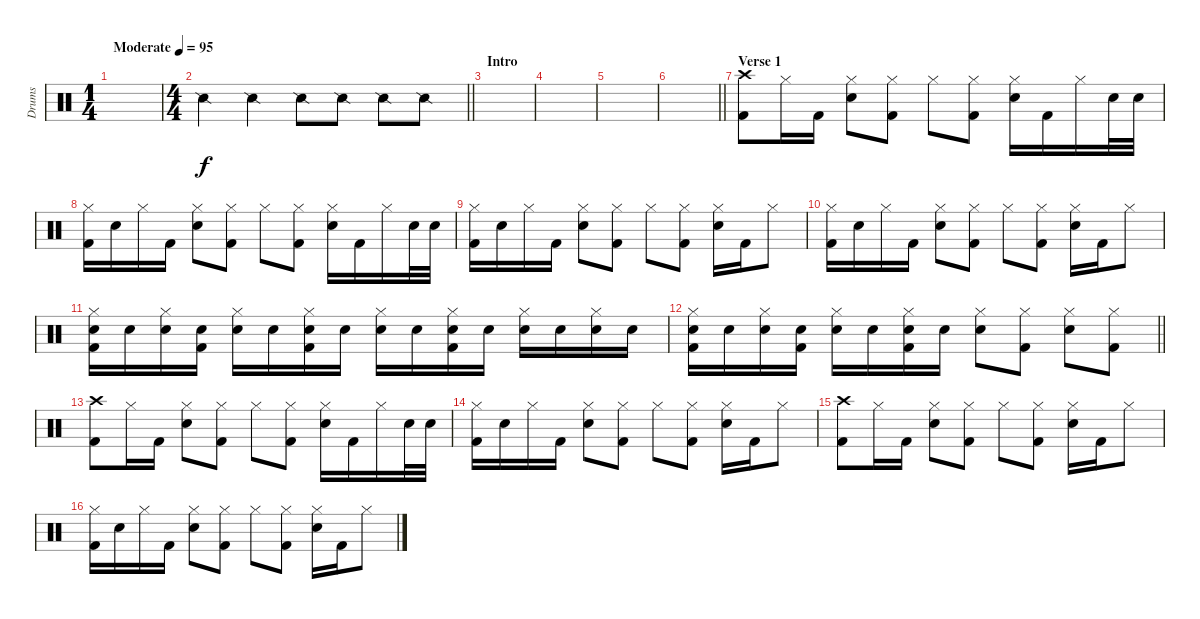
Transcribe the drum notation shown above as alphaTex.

\track ("Drums" "Drums") {instrument percussion}
\staff {score}
\articulation defaults
\ts (1 4)
\tempo (95 "Moderate")
\clef neutral
\ks c
|
\ts (4 4)
\barLineRight lightlight "Snare (side stick) 2".4 "Snare (side stick) 2".4 "Snare (side stick) 2".8 "Snare (side stick) 2".8 "Snare (side stick) 2".8 "Snare (side stick) 2".8
|
\section ("" "Intro")
|
|
|
\barLineRight lightlight
|
\section ("" "Verse 1")
("Crash high (hit)" "Kick (hit) 2").8 "Hi-Hat (closed)".16 "Kick (hit) 2".16 ("Hi-Hat (closed)" "Snare (hit) 2").8 ("Hi-Hat (closed)" "Kick (hit) 2").8 "Hi-Hat (closed)".8 ("Hi-Hat (closed)" "Kick (hit) 2").8 ("Hi-Hat (closed)" "Snare (hit) 2").16 "Kick (hit) 2".16 "Hi-Hat (closed)".16 "Snare (hit) 2".32 "Snare (hit) 2".32 |
("Hi-Hat (closed)" "Kick (hit) 2").16 "Snare (hit) 2".16 "Hi-Hat (closed)".16 "Kick (hit) 2".16 ("Hi-Hat (closed)" "Snare (hit) 2").8 ("Hi-Hat (closed)" "Kick (hit) 2").8 "Hi-Hat (closed)".8 ("Hi-Hat (closed)" "Kick (hit) 2").8 ("Hi-Hat (closed)" "Snare (hit) 2").16 "Kick (hit) 2".16 "Hi-Hat (closed)".16 "Snare (hit) 2".32 "Snare (hit) 2".32 |
("Hi-Hat (closed)" "Kick (hit) 2").16 "Snare (hit) 2".16 "Hi-Hat (closed)".16 "Kick (hit) 2".16 ("Hi-Hat (closed)" "Snare (hit) 2").8 ("Hi-Hat (closed)" "Kick (hit) 2").8 "Hi-Hat (closed)".8 ("Hi-Hat (closed)" "Kick (hit) 2").8 ("Hi-Hat (closed)" "Snare (hit) 2").16 "Kick (hit) 2".16 "Hi-Hat (closed)".8 |
("Hi-Hat (closed)" "Kick (hit) 2").16 "Snare (hit) 2".16 "Hi-Hat (closed)".16 "Kick (hit) 2".16 ("Hi-Hat (closed)" "Snare (hit) 2").8 ("Hi-Hat (closed)" "Kick (hit) 2").8 "Hi-Hat (closed)".8 ("Hi-Hat (closed)" "Kick (hit) 2").8 ("Hi-Hat (closed)" "Snare (hit) 2").16 "Kick (hit) 2".16 "Hi-Hat (closed)".8 |
("Hi-Hat (closed)" "Snare (hit) 2" "Kick (hit) 2").16 "Snare (hit) 2".16 ("Hi-Hat (closed)" "Snare (hit) 2").16 ("Snare (hit) 2" "Kick (hit) 2").16 ("Hi-Hat (closed)" "Snare (hit) 2").16 "Snare (hit) 2".16 ("Hi-Hat (closed)" "Snare (hit) 2" "Kick (hit) 2").16 "Snare (hit) 2".16 ("Hi-Hat (closed)" "Snare (hit) 2").16 "Snare (hit) 2".16 ("Hi-Hat (closed)" "Snare (hit) 2" "Kick (hit) 2").16 "Snare (hit) 2".16 ("Hi-Hat (closed)" "Snare (hit) 2").16 "Snare (hit) 2".16 ("Hi-Hat (closed)" "Snare (hit) 2").16 "Snare (hit) 2".16 |
\barLineRight lightlight
("Hi-Hat (closed)" "Snare (hit) 2" "Kick (hit) 2").16 "Snare (hit) 2".16 ("Hi-Hat (closed)" "Snare (hit) 2").16 ("Snare (hit) 2" "Kick (hit) 2").16 ("Hi-Hat (closed)" "Snare (hit) 2").16 "Snare (hit) 2".16 ("Hi-Hat (closed)" "Snare (hit) 2" "Kick (hit) 2").16 "Snare (hit) 2".16 ("Hi-Hat (closed)" "Snare (hit) 2").8 ("Hi-Hat (closed)" "Kick (hit) 2").8 ("Hi-Hat (closed)" "Snare (hit) 2").8 ("Hi-Hat (closed)" "Kick (hit) 2").8 |
("Crash high (hit)" "Kick (hit) 2").8 "Hi-Hat (closed)".16 "Kick (hit) 2".16 ("Hi-Hat (closed)" "Snare (hit) 2").8 ("Hi-Hat (closed)" "Kick (hit) 2").8 "Hi-Hat (closed)".8 ("Hi-Hat (closed)" "Kick (hit) 2").8 ("Hi-Hat (closed)" "Snare (hit) 2").16 "Kick (hit) 2".16 "Hi-Hat (closed)".16 "Snare (hit) 2".32 "Snare (hit) 2".32 |
("Hi-Hat (closed)" "Kick (hit) 2").16 "Snare (hit) 2".16 "Hi-Hat (closed)".16 "Kick (hit) 2".16 ("Hi-Hat (closed)" "Snare (hit) 2").8 ("Hi-Hat (closed)" "Kick (hit) 2").8 "Hi-Hat (closed)".8 ("Hi-Hat (closed)" "Kick (hit) 2").8 ("Hi-Hat (closed)" "Snare (hit) 2").16 "Kick (hit) 2".16 "Hi-Hat (closed)".8 |
("Crash high (hit)" "Kick (hit) 2").8 "Hi-Hat (closed)".16 "Kick (hit) 2".16 ("Hi-Hat (closed)" "Snare (hit) 2").8 ("Hi-Hat (closed)" "Kick (hit) 2").8 "Hi-Hat (closed)".8 ("Hi-Hat (closed)" "Kick (hit) 2").8 ("Hi-Hat (closed)" "Snare (hit) 2").16 "Kick (hit) 2".16 "Hi-Hat (closed)".8 |
("Hi-Hat (closed)" "Kick (hit) 2").16 "Snare (hit) 2".16 "Hi-Hat (closed)".16 "Kick (hit) 2".16 ("Hi-Hat (closed)" "Snare (hit) 2").8 ("Hi-Hat (closed)" "Kick (hit) 2").8 "Hi-Hat (closed)".8 ("Hi-Hat (closed)" "Kick (hit) 2").8 ("Hi-Hat (closed)" "Snare (hit) 2").16 "Kick (hit) 2".16 "Hi-Hat (closed)".8
